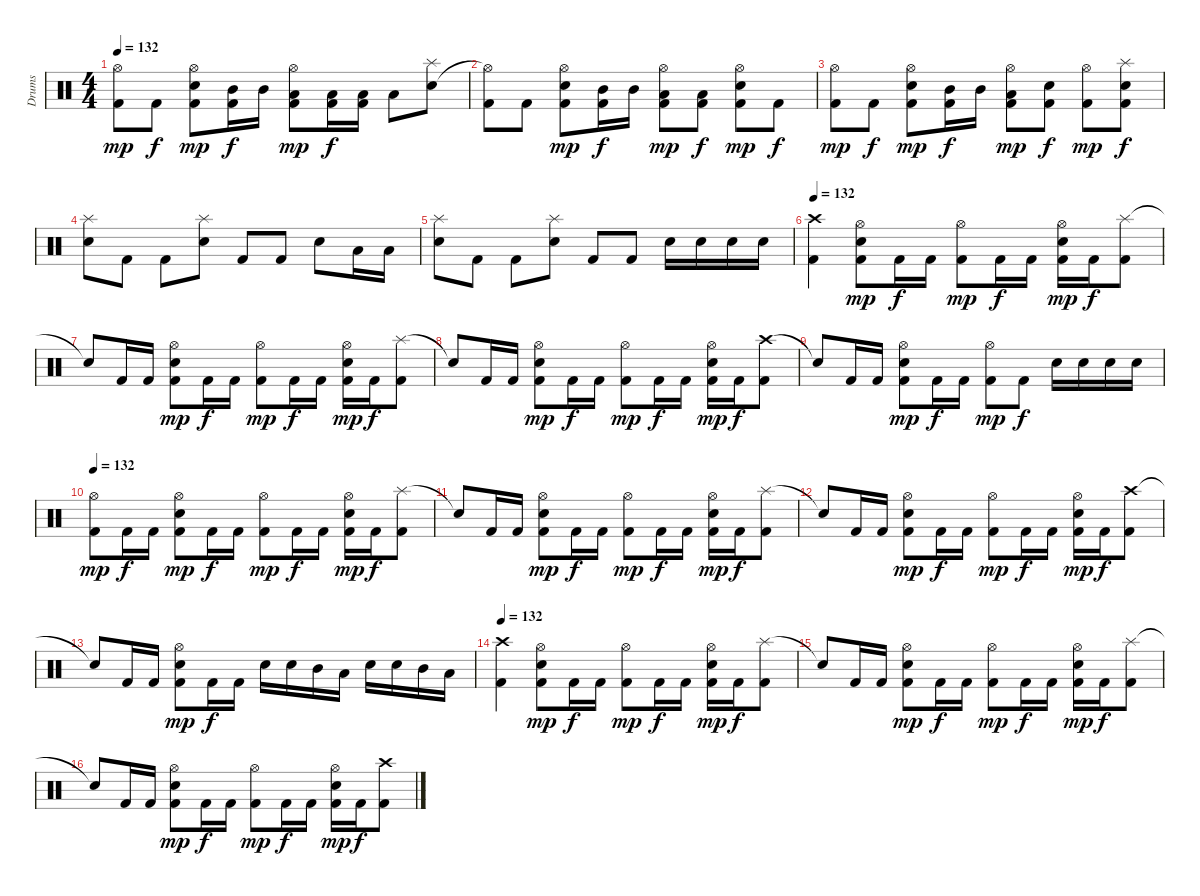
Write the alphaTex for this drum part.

\track ("Drums" "Drums") {instrument percussion}
\staff {score}
\articulation defaults
\ts (4 4)
\tempo 132
\clef neutral
\ks c
("Hi-Hat (open)" "Kick (hit) 2").8{dy mp} "Kick (hit) 2".8{dy f} ("Snare (hit) 2" "Hi-Hat (open)" "Kick (hit) 2").8{dy mp} ("Mid Tom (hit)" "Kick (hit) 2").16{dy f} "Mid Tom (hit)".16 ("Hi-Hat (open)" "Low Tom (hit)" "Kick (hit) 2").8{dy mp} ("Low Tom (hit)" "Kick (hit) 2").16{dy f} ("Low Tom (hit)" "Kick (hit) 2").16 "Low Tom (hit)".8 ("Snare (hit) 2" "Splash (hit)").8 |
("Hi-Hat (open)"{t} "Kick (hit) 2").8 "Kick (hit) 2".8 ("Snare (hit) 2" "Hi-Hat (open)" "Kick (hit) 2").8{dy mp} ("Mid Tom (hit)" "Kick (hit) 2").16{dy f} "Mid Tom (hit)".16 ("Hi-Hat (open)" "Low Tom (hit)" "Kick (hit) 2").8{dy mp} ("Low Tom (hit)" "Kick (hit) 2").8{dy f} ("Snare (hit) 2" "Hi-Hat (open)" "Kick (hit) 2").8{dy mp} "Kick (hit) 2".8{dy f} |
("Hi-Hat (open)" "Kick (hit) 2").8{dy mp} "Kick (hit) 2".8{dy f} ("Snare (hit) 2" "Hi-Hat (open)" "Kick (hit) 2").8{dy mp} ("Mid Tom (hit)" "Kick (hit) 2").16{dy f} "Mid Tom (hit)".16 ("Hi-Hat (open)" "Low Tom (hit)" "Kick (hit) 2").8{dy mp} ("Snare (hit) 2" "Kick (hit) 2").8{dy f} ("Hi-Hat (open)" "Kick (hit) 2").8{dy mp} ("Snare (hit) 2" "Splash (hit)" "Kick (hit) 2").8{dy f} |
("Snare (hit) 2" "Splash (hit)").8 "Kick (hit) 2".8 "Kick (hit) 2".8 ("Snare (hit) 2" "Splash (hit)").8 "Kick (hit) 2".8 "Kick (hit) 2".8 "Snare (hit) 2".8 "Low Tom (hit)".16 "Low Tom (hit)".16 |
("Snare (hit) 2" "Splash (hit)").8 "Kick (hit) 2".8 "Kick (hit) 2".8 ("Snare (hit) 2" "Splash (hit)").8 "Kick (hit) 2".8 "Kick (hit) 2".8 "Snare (hit) 2".16 "Snare (hit) 2".16 "Snare (hit) 2".16 "Snare (hit) 2".16 |
\tempo 132
("Crash high (hit)" "Kick (hit) 2").4 ("Snare (hit) 2" "Hi-Hat (open)" "Kick (hit) 2").8{dy mp} "Kick (hit) 2".16{dy f} "Kick (hit) 2".16 ("Hi-Hat (open)" "Kick (hit) 2").8{dy mp} "Kick (hit) 2".16{dy f} "Kick (hit) 2".16 ("Snare (hit) 2" "Hi-Hat (open)" "Kick (hit) 2").16{dy mp} "Kick (hit) 2".16{dy f} ("Splash (hit)" "Kick (hit) 2").8 |
"Snare (hit)"{t}.8 "Kick (hit) 2".16 "Kick (hit) 2".16 ("Snare (hit) 2" "Hi-Hat (open)" "Kick (hit) 2").8{dy mp} "Kick (hit) 2".16{dy f} "Kick (hit) 2".16 ("Hi-Hat (open)" "Kick (hit) 2").8{dy mp} "Kick (hit) 2".16{dy f} "Kick (hit) 2".16 ("Snare (hit) 2" "Hi-Hat (open)" "Kick (hit) 2").16{dy mp} "Kick (hit) 2".16{dy f} ("Splash (hit)" "Kick (hit) 2").8 |
"Snare (hit)"{t}.8 "Kick (hit) 2".16 "Kick (hit) 2".16 ("Snare (hit) 2" "Hi-Hat (open)" "Kick (hit) 2").8{dy mp} "Kick (hit) 2".16{dy f} "Kick (hit) 2".16 ("Hi-Hat (open)" "Kick (hit) 2").8{dy mp} "Kick (hit) 2".16{dy f} "Kick (hit) 2".16 ("Snare (hit) 2" "Hi-Hat (open)" "Kick (hit) 2").16{dy mp} "Kick (hit) 2".16{dy f} ("Crash high (hit)" "Kick (hit) 2").8 |
"Snare (hit)"{t}.8 "Kick (hit) 2".16 "Kick (hit) 2".16 ("Snare (hit) 2" "Hi-Hat (open)" "Kick (hit) 2").8{dy mp} "Kick (hit) 2".16{dy f} "Kick (hit) 2".16 ("Hi-Hat (open)" "Kick (hit) 2").8{dy mp} "Kick (hit) 2".8{dy f} "Snare (hit) 2".16 "Snare (hit) 2".16 "Snare (hit) 2".16 "Snare (hit) 2".16 |
\tempo 132
("Hi-Hat (open)" "Kick (hit) 2").8{dy mp} "Kick (hit) 2".16{dy f} "Kick (hit) 2".16 ("Snare (hit) 2" "Hi-Hat (open)" "Kick (hit) 2").8{dy mp} "Kick (hit) 2".16{dy f} "Kick (hit) 2".16 ("Hi-Hat (open)" "Kick (hit) 2").8{dy mp} "Kick (hit) 2".16{dy f} "Kick (hit) 2".16 ("Snare (hit) 2" "Hi-Hat (open)" "Kick (hit) 2").16{dy mp} "Kick (hit) 2".16{dy f} ("Splash (hit)" "Kick (hit) 2").8 |
"Snare (hit)"{t}.8 "Kick (hit) 2".16 "Kick (hit) 2".16 ("Snare (hit) 2" "Hi-Hat (open)" "Kick (hit) 2").8{dy mp} "Kick (hit) 2".16{dy f} "Kick (hit) 2".16 ("Hi-Hat (open)" "Kick (hit) 2").8{dy mp} "Kick (hit) 2".16{dy f} "Kick (hit) 2".16 ("Snare (hit) 2" "Hi-Hat (open)" "Kick (hit) 2").16{dy mp} "Kick (hit) 2".16{dy f} ("Splash (hit)" "Kick (hit) 2").8 |
"Snare (hit)"{t}.8 "Kick (hit) 2".16 "Kick (hit) 2".16 ("Snare (hit) 2" "Hi-Hat (open)" "Kick (hit) 2").8{dy mp} "Kick (hit) 2".16{dy f} "Kick (hit) 2".16 ("Hi-Hat (open)" "Kick (hit) 2").8{dy mp} "Kick (hit) 2".16{dy f} "Kick (hit) 2".16 ("Snare (hit) 2" "Hi-Hat (open)" "Kick (hit) 2").16{dy mp} "Kick (hit) 2".16{dy f} ("Crash high (hit)" "Kick (hit) 2").8 |
"Snare (hit)"{t}.8 "Kick (hit) 2".16 "Kick (hit) 2".16 ("Snare (hit) 2" "Hi-Hat (open)" "Kick (hit) 2").8{dy mp} "Kick (hit) 2".16{dy f} "Kick (hit) 2".16 "Snare (hit) 2".16 "Snare (hit) 2".16 "Mid Tom (hit)".16 "Low Tom (hit)".16 "Snare (hit) 2".16 "Snare (hit) 2".16 "Mid Tom (hit)".16 "Low Tom (hit)".16 |
\tempo 132
("Crash high (hit)" "Kick (hit) 2").4 ("Snare (hit) 2" "Hi-Hat (open)" "Kick (hit) 2").8{dy mp} "Kick (hit) 2".16{dy f} "Kick (hit) 2".16 ("Hi-Hat (open)" "Kick (hit) 2").8{dy mp} "Kick (hit) 2".16{dy f} "Kick (hit) 2".16 ("Snare (hit) 2" "Hi-Hat (open)" "Kick (hit) 2").16{dy mp} "Kick (hit) 2".16{dy f} ("Splash (hit)" "Kick (hit) 2").8 |
"Snare (hit)"{t}.8 "Kick (hit) 2".16 "Kick (hit) 2".16 ("Snare (hit) 2" "Hi-Hat (open)" "Kick (hit) 2").8{dy mp} "Kick (hit) 2".16{dy f} "Kick (hit) 2".16 ("Hi-Hat (open)" "Kick (hit) 2").8{dy mp} "Kick (hit) 2".16{dy f} "Kick (hit) 2".16 ("Snare (hit) 2" "Hi-Hat (open)" "Kick (hit) 2").16{dy mp} "Kick (hit) 2".16{dy f} ("Splash (hit)" "Kick (hit) 2").8 |
"Snare (hit)"{t}.8 "Kick (hit) 2".16 "Kick (hit) 2".16 ("Snare (hit) 2" "Hi-Hat (open)" "Kick (hit) 2").8{dy mp} "Kick (hit) 2".16{dy f} "Kick (hit) 2".16 ("Hi-Hat (open)" "Kick (hit) 2").8{dy mp} "Kick (hit) 2".16{dy f} "Kick (hit) 2".16 ("Snare (hit) 2" "Hi-Hat (open)" "Kick (hit) 2").16{dy mp} "Kick (hit) 2".16{dy f} ("Crash high (hit)" "Kick (hit) 2").8
